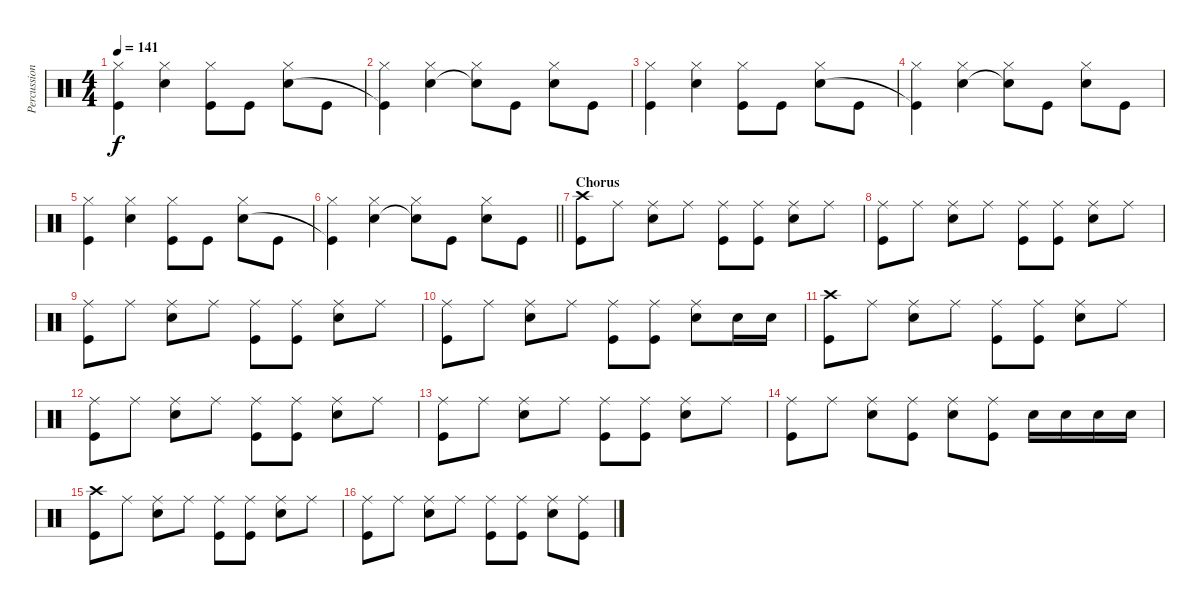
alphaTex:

\track ("Percussion" "Percussion") {instrument percussion}
\staff {score}
\articulation defaults
\ts (4 4)
\tempo 141
\clef neutral
\ks c
("Kick (hit)" "Hi-Hat (closed)").4{dy f} ("Snare (hit) 2" "Hi-Hat (closed)").4 ("Hi-Hat (closed)" "Kick (hit)").8 "Kick (hit)".8 ("Hi-Hat (closed)" "Snare (hit) 2").8 "Kick (hit)".8 |
("Hi-Hat (closed)" "Kick (hit)"{t}).4 ("Hi-Hat (closed)" "Snare (hit) 2").4 ("Hi-Hat (closed)" "Snare (hit) 2"{t}).8 "Kick (hit)".8 ("Hi-Hat (closed)" "Snare (hit) 2").8 "Kick (hit)".8 |
("Kick (hit)" "Hi-Hat (closed)").4 ("Snare (hit) 2" "Hi-Hat (closed)").4 ("Hi-Hat (closed)" "Kick (hit)").8 "Kick (hit)".8 ("Hi-Hat (closed)" "Snare (hit) 2").8 "Kick (hit)".8 |
("Hi-Hat (closed)" "Kick (hit)"{t}).4 ("Hi-Hat (closed)" "Snare (hit) 2").4 ("Hi-Hat (closed)" "Snare (hit) 2"{t}).8 "Kick (hit)".8 ("Hi-Hat (closed)" "Snare (hit) 2").8 "Kick (hit)".8 |
("Kick (hit)" "Hi-Hat (closed)").4 ("Snare (hit) 2" "Hi-Hat (closed)").4 ("Hi-Hat (closed)" "Kick (hit)").8 "Kick (hit)".8 ("Hi-Hat (closed)" "Snare (hit) 2").8 "Kick (hit)".8 |
\barLineRight lightlight
("Hi-Hat (closed)" "Kick (hit)"{t}).4 ("Hi-Hat (closed)" "Snare (hit) 2").4 ("Hi-Hat (closed)" "Snare (hit) 2"{t}).8 "Kick (hit)".8 ("Hi-Hat (closed)" "Snare (hit) 2").8 "Kick (hit)".8 |
\section ("" "Chorus")
("Crash high (hit)" "Kick (hit)").8 "Ride (middle)".8 ("Ride (middle)" "Snare (hit) 2").8 "Ride (middle)".8 ("Ride (middle)" "Kick (hit)").8 ("Ride (middle)" "Kick (hit)").8 ("Ride (middle)" "Snare (hit) 2").8 "Ride (middle)".8 |
("Ride (middle)" "Kick (hit)").8 "Ride (middle)".8 ("Ride (middle)" "Snare (hit) 2").8 "Ride (middle)".8 ("Ride (middle)" "Kick (hit)").8 ("Ride (middle)" "Kick (hit)").8 ("Ride (middle)" "Snare (hit) 2").8 "Ride (middle)".8 |
("Ride (middle)" "Kick (hit)").8 "Ride (middle)".8 ("Ride (middle)" "Snare (hit) 2").8 "Ride (middle)".8 ("Ride (middle)" "Kick (hit)").8 ("Ride (middle)" "Kick (hit)").8 ("Ride (middle)" "Snare (hit) 2").8 "Ride (middle)".8 |
("Ride (middle)" "Kick (hit)").8 "Ride (middle)".8 ("Ride (middle)" "Snare (hit) 2").8 "Ride (middle)".8 ("Ride (middle)" "Kick (hit)").8 ("Ride (middle)" "Kick (hit)").8 ("Ride (middle)" "Snare (hit) 2").8 "Snare (hit) 2".16 "Snare (hit) 2".16 |
("Crash high (hit)" "Kick (hit)").8 "Ride (middle)".8 ("Ride (middle)" "Snare (hit) 2").8 "Ride (middle)".8 ("Ride (middle)" "Kick (hit)").8 ("Ride (middle)" "Kick (hit)").8 ("Ride (middle)" "Snare (hit) 2").8 "Ride (middle)".8 |
("Ride (middle)" "Kick (hit)").8 "Ride (middle)".8 ("Ride (middle)" "Snare (hit) 2").8 "Ride (middle)".8 ("Ride (middle)" "Kick (hit)").8 ("Ride (middle)" "Kick (hit)").8 ("Ride (middle)" "Snare (hit) 2").8 "Ride (middle)".8 |
("Ride (middle)" "Kick (hit)").8 "Ride (middle)".8 ("Ride (middle)" "Snare (hit) 2").8 "Ride (middle)".8 ("Ride (middle)" "Kick (hit)").8 ("Ride (middle)" "Kick (hit)").8 ("Ride (middle)" "Snare (hit) 2").8 "Ride (middle)".8 |
("Ride (middle)" "Kick (hit)").8 "Ride (middle)".8 ("Ride (middle)" "Snare (hit) 2").8 ("Ride (middle)" "Kick (hit)").8 ("Ride (middle)" "Snare (hit) 2").8 ("Ride (middle)" "Kick (hit)").8 "Snare (hit) 2".16 "Snare (hit) 2".16 "Snare (hit) 2".16 "Snare (hit) 2".16 |
("Crash high (hit)" "Kick (hit)").8 "Ride (middle)".8 ("Ride (middle)" "Snare (hit) 2").8 "Ride (middle)".8 ("Ride (middle)" "Kick (hit)").8 ("Ride (middle)" "Kick (hit)").8 ("Ride (middle)" "Snare (hit) 2").8 "Ride (middle)".8 |
("Ride (middle)" "Kick (hit)").8 "Ride (middle)".8 ("Ride (middle)" "Snare (hit) 2").8 "Ride (middle)".8 ("Ride (middle)" "Kick (hit)").8 ("Ride (middle)" "Kick (hit)").8 ("Ride (middle)" "Snare (hit) 2").8 ("Ride (middle)" "Kick (hit)").8
